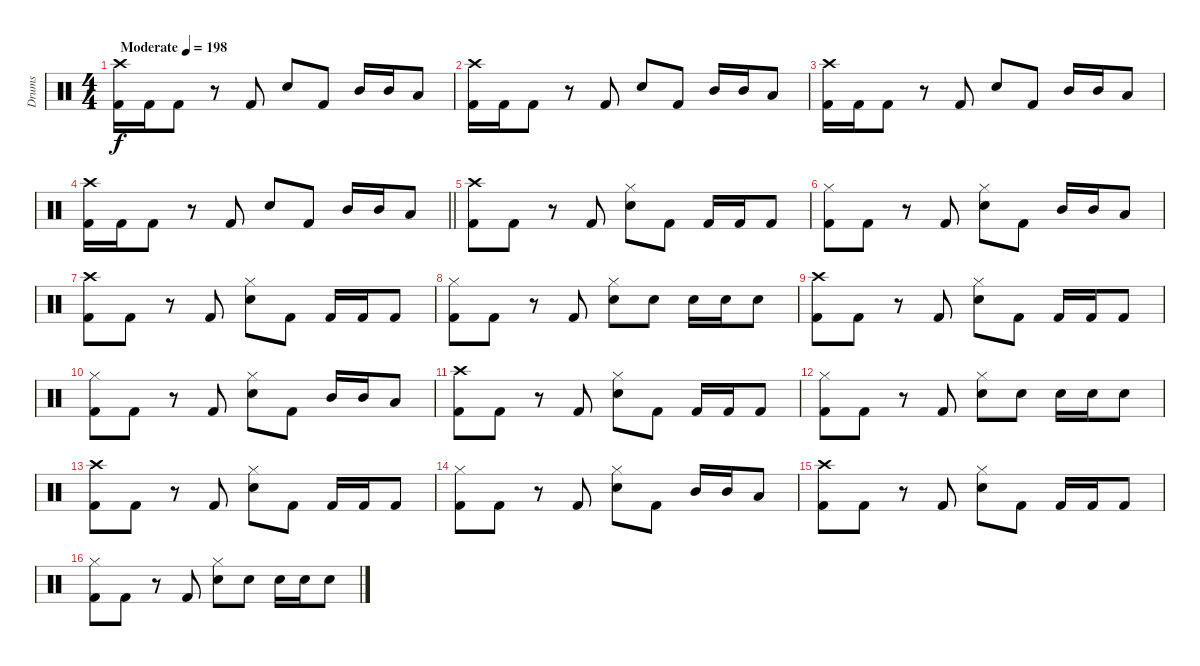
\track ("Drums" "Drums") {instrument percussion}
\staff {score}
\articulation defaults
\ts (4 4)
\tempo (198 "Moderate")
\clef neutral
\ks c
("Crash high (hit)" "Kick (hit) 2").16{dy f} "Kick (hit) 2".16 "Kick (hit) 2".8 r.8 "Kick (hit) 2".8 "Snare (hit) 2".8 "Kick (hit) 2".8 "Mid Tom (hit)".16 "Mid Tom (hit)".16 "Low Tom (hit)".8 |
("Crash high (hit)" "Kick (hit) 2").16 "Kick (hit) 2".16 "Kick (hit) 2".8 r.8 "Kick (hit) 2".8 "Snare (hit) 2".8 "Kick (hit) 2".8 "Mid Tom (hit)".16 "Mid Tom (hit)".16 "Low Tom (hit)".8 |
("Crash high (hit)" "Kick (hit) 2").16 "Kick (hit) 2".16 "Kick (hit) 2".8 r.8 "Kick (hit) 2".8 "Snare (hit) 2".8 "Kick (hit) 2".8 "Mid Tom (hit)".16 "Mid Tom (hit)".16 "Low Tom (hit)".8 |
\barLineRight lightlight
("Crash high (hit)" "Kick (hit) 2").16 "Kick (hit) 2".16 "Kick (hit) 2".8 r.8 "Kick (hit) 2".8 "Snare (hit) 2".8 "Kick (hit) 2".8 "Mid Tom (hit)".16 "Mid Tom (hit)".16 "Low Tom (hit)".8 |
("Crash high (hit)" "Kick (hit) 2").8 "Kick (hit) 2".8 r.8 "Kick (hit) 2".8 ("Hi-Hat (closed)" "Snare (hit) 2").8 "Kick (hit) 2".8 "Kick (hit) 2".16 "Kick (hit) 2".16 "Kick (hit) 2".8 |
("Hi-Hat (closed)" "Kick (hit) 2").8 "Kick (hit) 2".8 r.8 "Kick (hit) 2".8 ("Hi-Hat (closed)" "Snare (hit) 2").8 "Kick (hit) 2".8 "Mid Tom (hit)".16 "Mid Tom (hit)".16 "Low Tom (hit)".8 |
("Crash high (hit)" "Kick (hit) 2").8 "Kick (hit) 2".8 r.8 "Kick (hit) 2".8 ("Hi-Hat (closed)" "Snare (hit) 2").8 "Kick (hit) 2".8 "Kick (hit) 2".16 "Kick (hit) 2".16 "Kick (hit) 2".8 |
("Hi-Hat (closed)" "Kick (hit) 2").8 "Kick (hit) 2".8 r.8 "Kick (hit) 2".8 ("Hi-Hat (closed)" "Snare (hit) 2").8 "Snare (hit) 2".8 "Snare (hit) 2".16 "Snare (hit) 2".16 "Snare (hit) 2".8 |
("Crash high (hit)" "Kick (hit) 2").8 "Kick (hit) 2".8 r.8 "Kick (hit) 2".8 ("Hi-Hat (closed)" "Snare (hit) 2").8 "Kick (hit) 2".8 "Kick (hit) 2".16 "Kick (hit) 2".16 "Kick (hit) 2".8 |
("Hi-Hat (closed)" "Kick (hit) 2").8 "Kick (hit) 2".8 r.8 "Kick (hit) 2".8 ("Hi-Hat (closed)" "Snare (hit) 2").8 "Kick (hit) 2".8 "Mid Tom (hit)".16 "Mid Tom (hit)".16 "Low Tom (hit)".8 |
("Crash high (hit)" "Kick (hit) 2").8 "Kick (hit) 2".8 r.8 "Kick (hit) 2".8 ("Hi-Hat (closed)" "Snare (hit) 2").8 "Kick (hit) 2".8 "Kick (hit) 2".16 "Kick (hit) 2".16 "Kick (hit) 2".8 |
("Hi-Hat (closed)" "Kick (hit) 2").8 "Kick (hit) 2".8 r.8 "Kick (hit) 2".8 ("Hi-Hat (closed)" "Snare (hit) 2").8 "Snare (hit) 2".8 "Snare (hit) 2".16 "Snare (hit) 2".16 "Snare (hit) 2".8 |
("Crash high (hit)" "Kick (hit) 2").8 "Kick (hit) 2".8 r.8 "Kick (hit) 2".8 ("Hi-Hat (closed)" "Snare (hit) 2").8 "Kick (hit) 2".8 "Kick (hit) 2".16 "Kick (hit) 2".16 "Kick (hit) 2".8 |
("Hi-Hat (closed)" "Kick (hit) 2").8 "Kick (hit) 2".8 r.8 "Kick (hit) 2".8 ("Hi-Hat (closed)" "Snare (hit) 2").8 "Kick (hit) 2".8 "Mid Tom (hit)".16 "Mid Tom (hit)".16 "Low Tom (hit)".8 |
("Crash high (hit)" "Kick (hit) 2").8 "Kick (hit) 2".8 r.8 "Kick (hit) 2".8 ("Hi-Hat (closed)" "Snare (hit) 2").8 "Kick (hit) 2".8 "Kick (hit) 2".16 "Kick (hit) 2".16 "Kick (hit) 2".8 |
("Hi-Hat (closed)" "Kick (hit) 2").8 "Kick (hit) 2".8 r.8 "Kick (hit) 2".8 ("Hi-Hat (closed)" "Snare (hit) 2").8 "Snare (hit) 2".8 "Snare (hit) 2".16 "Snare (hit) 2".16 "Snare (hit) 2".8
